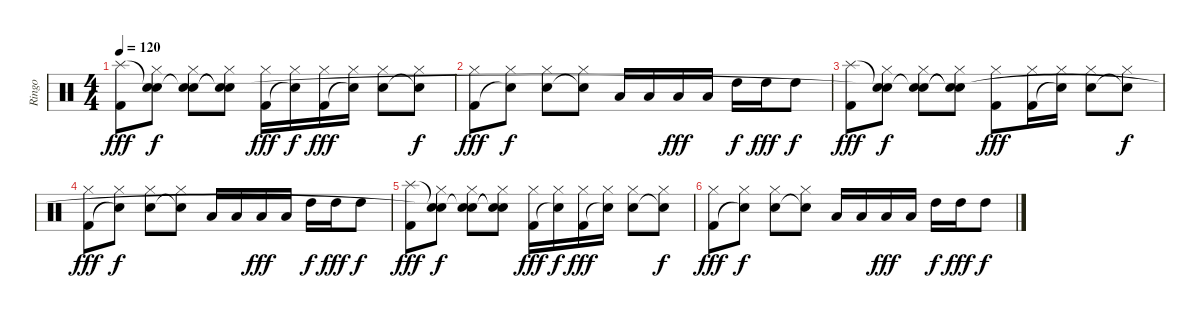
\track ("Ringo" "Ringo") {instrument percussion}
\staff {score}
\articulation defaults
\ts (4 4)
\tempo 120
\clef neutral
\ks c
("Splash (hit)" "Kick (hit) 2").8{dy fff volume 7} ("Snare (hit)"{t} "Hi-Hat (closed)" "Snare (hit)"{t}).8{dy f} ("Snare (hit)"{t} "Hi-Hat (closed)" "Snare (hit) 2").8 ("Snare (hit)"{t} "Hi-Hat (closed)" "Snare (hit)"{t}).8 ("Hi-Hat (closed)" "Kick (hit) 2").16{dy fff} ("Hi-Hat (closed)" "Snare (hit)"{t}).16{dy f} ("Hi-Hat (closed)" "Kick (hit) 2").16{dy fff} ("Hi-Hat (closed)" "Snare (hit)"{t}).16 ("Hi-Hat (closed)" "Snare (hit) 2").8 ("Hi-Hat (closed)" "Snare (hit)"{t}).8{dy f} |
("Hi-Hat (closed)" "Kick (hit) 2").8{dy fff} ("Hi-Hat (closed)" "Snare (hit)"{t}).8{dy f} ("Hi-Hat (closed)" "Snare (hit) 2").8 ("Hi-Hat (closed)" "Snare (hit)"{t}).8 "Low Floor Tom (hit)".16 "Low Floor Tom (hit)".16 "Low Floor Tom (hit)".16{dy fff} "Low Floor Tom (hit)".16 "High Tom (hit)".16{dy f} "High Tom (hit)".16{dy fff} "High Tom (hit)".8{dy f} |
("Splash (hit)" "Kick (hit) 2").8{dy fff volume 5} ("Snare (hit)"{t} "Hi-Hat (closed)" "Snare (hit)"{t}).8{dy f} ("Snare (hit)"{t} "Hi-Hat (closed)" "Snare (hit) 2").8 ("Snare (hit)"{t} "Hi-Hat (closed)" "Snare (hit)"{t}).8 ("Hi-Hat (closed)" "Kick (hit) 2").8{dy fff} ("Hi-Hat (closed)" "Kick (hit) 2").16 ("Hi-Hat (closed)" "Snare (hit)"{t}).16 ("Hi-Hat (closed)" "Snare (hit) 2").8 ("Hi-Hat (closed)" "Snare (hit)"{t}).8{dy f} |
("Hi-Hat (closed)" "Kick (hit) 2").8{dy fff} ("Hi-Hat (closed)" "Snare (hit)"{t}).8{dy f} ("Hi-Hat (closed)" "Snare (hit) 2").8 ("Hi-Hat (closed)" "Snare (hit)"{t}).8 "Low Floor Tom (hit)".16 "Low Floor Tom (hit)".16 "Low Floor Tom (hit)".16{dy fff} "Low Floor Tom (hit)".16 "High Tom (hit)".16{dy f} "High Tom (hit)".16{dy fff} "High Tom (hit)".8{dy f} |
("Splash (hit)" "Kick (hit) 2").8{dy fff volume 3} ("Snare (hit)"{t} "Hi-Hat (closed)" "Snare (hit)"{t}).8{dy f} ("Snare (hit)"{t} "Hi-Hat (closed)" "Snare (hit) 2").8 ("Snare (hit)"{t} "Hi-Hat (closed)" "Snare (hit)"{t}).8 ("Hi-Hat (closed)" "Kick (hit) 2").16{dy fff} ("Hi-Hat (closed)" "Snare (hit)"{t}).16{dy f} ("Hi-Hat (closed)" "Kick (hit) 2").16{dy fff} ("Hi-Hat (closed)" "Snare (hit)"{t}).16 ("Hi-Hat (closed)" "Snare (hit) 2").8 ("Hi-Hat (closed)" "Snare (hit)"{t}).8{dy f} |
("Hi-Hat (closed)" "Kick (hit) 2").8{dy fff volume 2} ("Hi-Hat (closed)" "Snare (hit)"{t}).8{dy f} ("Hi-Hat (closed)" "Snare (hit) 2").8 ("Hi-Hat (closed)" "Snare (hit)"{t}).8 "Low Floor Tom (hit)".16{volume 1} "Low Floor Tom (hit)".16 "Low Floor Tom (hit)".16{dy fff} "Low Floor Tom (hit)".16 "High Tom (hit)".16{dy f} "High Tom (hit)".16{dy fff} "High Tom (hit)".8{dy f}
